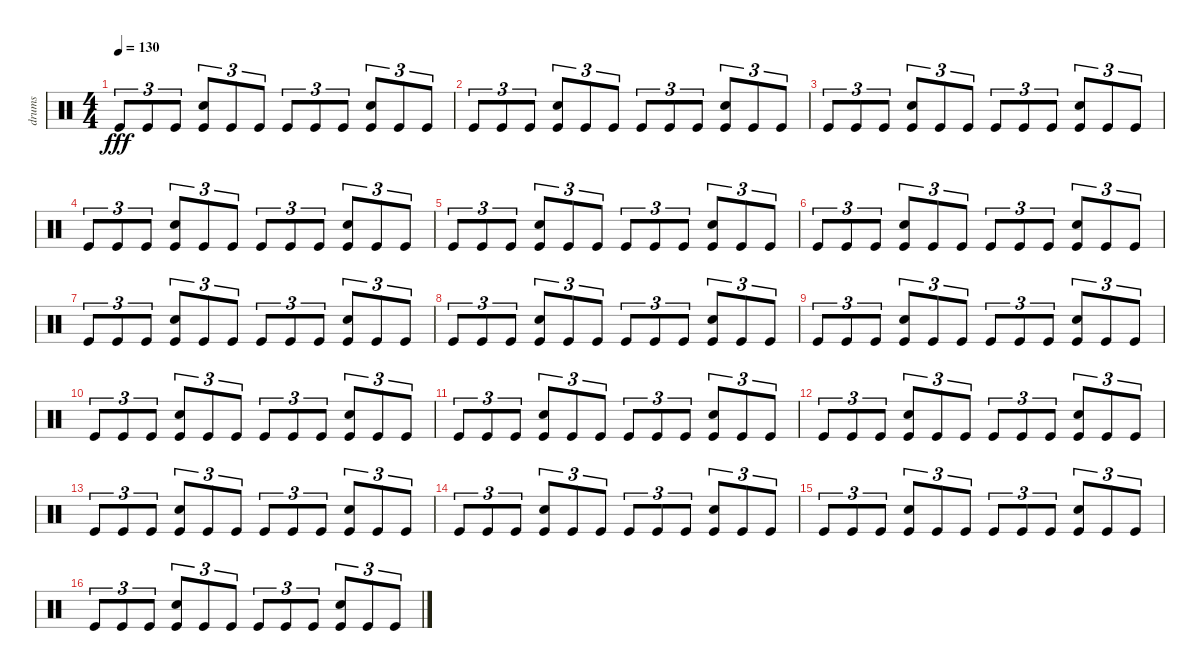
\track ("drums" "drums") {instrument percussion}
\staff {score}
\articulation defaults
\ts (4 4)
\tempo 130
\clef neutral
\ks c "Kick (hit)".8{tu (3 2) dy fff} "Kick (hit)".8{tu (3 2)} "Kick (hit)".8{tu (3 2)}
("Electric Snare (hit)" "Kick (hit)").8{tu (3 2)} "Kick (hit)".8{tu (3 2)} "Kick (hit)".8{tu (3 2)} "Kick (hit)".8{tu (3 2)} "Kick (hit)".8{tu (3 2)} "Kick (hit)".8{tu (3 2)} ("Electric Snare (hit)" "Kick (hit)").8{tu (3 2)} "Kick (hit)".8{tu (3 2)} "Kick (hit)".8{tu (3 2)} |
"Kick (hit)".8{tu (3 2)} "Kick (hit)".8{tu (3 2)} "Kick (hit)".8{tu (3 2)} ("Electric Snare (hit)" "Kick (hit)").8{tu (3 2)} "Kick (hit)".8{tu (3 2)} "Kick (hit)".8{tu (3 2)} "Kick (hit)".8{tu (3 2)} "Kick (hit)".8{tu (3 2)} "Kick (hit)".8{tu (3 2)} ("Electric Snare (hit)" "Kick (hit)").8{tu (3 2)} "Kick (hit)".8{tu (3 2)} "Kick (hit)".8{tu (3 2)} |
"Kick (hit)".8{tu (3 2)} "Kick (hit)".8{tu (3 2)} "Kick (hit)".8{tu (3 2)} ("Electric Snare (hit)" "Kick (hit)").8{tu (3 2)} "Kick (hit)".8{tu (3 2)} "Kick (hit)".8{tu (3 2)} "Kick (hit)".8{tu (3 2)} "Kick (hit)".8{tu (3 2)} "Kick (hit)".8{tu (3 2)} ("Electric Snare (hit)" "Kick (hit)").8{tu (3 2)} "Kick (hit)".8{tu (3 2)} "Kick (hit)".8{tu (3 2)} |
"Kick (hit)".8{tu (3 2)} "Kick (hit)".8{tu (3 2)} "Kick (hit)".8{tu (3 2)} ("Electric Snare (hit)" "Kick (hit)").8{tu (3 2)} "Kick (hit)".8{tu (3 2)} "Kick (hit)".8{tu (3 2)} "Kick (hit)".8{tu (3 2)} "Kick (hit)".8{tu (3 2)} "Kick (hit)".8{tu (3 2)} ("Electric Snare (hit)" "Kick (hit)").8{tu (3 2)} "Kick (hit)".8{tu (3 2)} "Kick (hit)".8{tu (3 2)} |
"Kick (hit)".8{tu (3 2)} "Kick (hit)".8{tu (3 2)} "Kick (hit)".8{tu (3 2)} ("Electric Snare (hit)" "Kick (hit)").8{tu (3 2)} "Kick (hit)".8{tu (3 2)} "Kick (hit)".8{tu (3 2)} "Kick (hit)".8{tu (3 2)} "Kick (hit)".8{tu (3 2)} "Kick (hit)".8{tu (3 2)} ("Electric Snare (hit)" "Kick (hit)").8{tu (3 2)} "Kick (hit)".8{tu (3 2)} "Kick (hit)".8{tu (3 2)} |
"Kick (hit)".8{tu (3 2)} "Kick (hit)".8{tu (3 2)} "Kick (hit)".8{tu (3 2)} ("Electric Snare (hit)" "Kick (hit)").8{tu (3 2)} "Kick (hit)".8{tu (3 2)} "Kick (hit)".8{tu (3 2)} "Kick (hit)".8{tu (3 2)} "Kick (hit)".8{tu (3 2)} "Kick (hit)".8{tu (3 2)} ("Electric Snare (hit)" "Kick (hit)").8{tu (3 2)} "Kick (hit)".8{tu (3 2)} "Kick (hit)".8{tu (3 2)} |
"Kick (hit)".8{tu (3 2)} "Kick (hit)".8{tu (3 2)} "Kick (hit)".8{tu (3 2)} ("Electric Snare (hit)" "Kick (hit)").8{tu (3 2)} "Kick (hit)".8{tu (3 2)} "Kick (hit)".8{tu (3 2)} "Kick (hit)".8{tu (3 2)} "Kick (hit)".8{tu (3 2)} "Kick (hit)".8{tu (3 2)} ("Electric Snare (hit)" "Kick (hit)").8{tu (3 2)} "Kick (hit)".8{tu (3 2)} "Kick (hit)".8{tu (3 2)} |
"Kick (hit)".8{tu (3 2)} "Kick (hit)".8{tu (3 2)} "Kick (hit)".8{tu (3 2)} ("Electric Snare (hit)" "Kick (hit)").8{tu (3 2)} "Kick (hit)".8{tu (3 2)} "Kick (hit)".8{tu (3 2)} "Kick (hit)".8{tu (3 2)} "Kick (hit)".8{tu (3 2)} "Kick (hit)".8{tu (3 2)} ("Electric Snare (hit)" "Kick (hit)").8{tu (3 2)} "Kick (hit)".8{tu (3 2)} "Kick (hit)".8{tu (3 2)} |
"Kick (hit)".8{tu (3 2)} "Kick (hit)".8{tu (3 2)} "Kick (hit)".8{tu (3 2)} ("Electric Snare (hit)" "Kick (hit)").8{tu (3 2)} "Kick (hit)".8{tu (3 2)} "Kick (hit)".8{tu (3 2)} "Kick (hit)".8{tu (3 2)} "Kick (hit)".8{tu (3 2)} "Kick (hit)".8{tu (3 2)} ("Electric Snare (hit)" "Kick (hit)").8{tu (3 2)} "Kick (hit)".8{tu (3 2)} "Kick (hit)".8{tu (3 2)} |
"Kick (hit)".8{tu (3 2)} "Kick (hit)".8{tu (3 2)} "Kick (hit)".8{tu (3 2)} ("Electric Snare (hit)" "Kick (hit)").8{tu (3 2)} "Kick (hit)".8{tu (3 2)} "Kick (hit)".8{tu (3 2)} "Kick (hit)".8{tu (3 2)} "Kick (hit)".8{tu (3 2)} "Kick (hit)".8{tu (3 2)} ("Electric Snare (hit)" "Kick (hit)").8{tu (3 2)} "Kick (hit)".8{tu (3 2)} "Kick (hit)".8{tu (3 2)} |
"Kick (hit)".8{tu (3 2)} "Kick (hit)".8{tu (3 2)} "Kick (hit)".8{tu (3 2)} ("Electric Snare (hit)" "Kick (hit)").8{tu (3 2)} "Kick (hit)".8{tu (3 2)} "Kick (hit)".8{tu (3 2)} "Kick (hit)".8{tu (3 2)} "Kick (hit)".8{tu (3 2)} "Kick (hit)".8{tu (3 2)} ("Electric Snare (hit)" "Kick (hit)").8{tu (3 2)} "Kick (hit)".8{tu (3 2)} "Kick (hit)".8{tu (3 2)} |
"Kick (hit)".8{tu (3 2)} "Kick (hit)".8{tu (3 2)} "Kick (hit)".8{tu (3 2)} ("Electric Snare (hit)" "Kick (hit)").8{tu (3 2)} "Kick (hit)".8{tu (3 2)} "Kick (hit)".8{tu (3 2)} "Kick (hit)".8{tu (3 2)} "Kick (hit)".8{tu (3 2)} "Kick (hit)".8{tu (3 2)} ("Electric Snare (hit)" "Kick (hit)").8{tu (3 2)} "Kick (hit)".8{tu (3 2)} "Kick (hit)".8{tu (3 2)} |
"Kick (hit)".8{tu (3 2)} "Kick (hit)".8{tu (3 2)} "Kick (hit)".8{tu (3 2)} ("Electric Snare (hit)" "Kick (hit)").8{tu (3 2)} "Kick (hit)".8{tu (3 2)} "Kick (hit)".8{tu (3 2)} "Kick (hit)".8{tu (3 2)} "Kick (hit)".8{tu (3 2)} "Kick (hit)".8{tu (3 2)} ("Electric Snare (hit)" "Kick (hit)").8{tu (3 2)} "Kick (hit)".8{tu (3 2)} "Kick (hit)".8{tu (3 2)} |
"Kick (hit)".8{tu (3 2)} "Kick (hit)".8{tu (3 2)} "Kick (hit)".8{tu (3 2)} ("Electric Snare (hit)" "Kick (hit)").8{tu (3 2)} "Kick (hit)".8{tu (3 2)} "Kick (hit)".8{tu (3 2)} "Kick (hit)".8{tu (3 2)} "Kick (hit)".8{tu (3 2)} "Kick (hit)".8{tu (3 2)} ("Electric Snare (hit)" "Kick (hit)").8{tu (3 2)} "Kick (hit)".8{tu (3 2)} "Kick (hit)".8{tu (3 2)} |
"Kick (hit)".8{tu (3 2)} "Kick (hit)".8{tu (3 2)} "Kick (hit)".8{tu (3 2)} ("Electric Snare (hit)" "Kick (hit)").8{tu (3 2)} "Kick (hit)".8{tu (3 2)} "Kick (hit)".8{tu (3 2)} "Kick (hit)".8{tu (3 2)} "Kick (hit)".8{tu (3 2)} "Kick (hit)".8{tu (3 2)} ("Electric Snare (hit)" "Kick (hit)").8{tu (3 2)} "Kick (hit)".8{tu (3 2)} "Kick (hit)".8{tu (3 2)} |
"Kick (hit)".8{tu (3 2)} "Kick (hit)".8{tu (3 2)} "Kick (hit)".8{tu (3 2)} ("Electric Snare (hit)" "Kick (hit)").8{tu (3 2)} "Kick (hit)".8{tu (3 2)} "Kick (hit)".8{tu (3 2)} "Kick (hit)".8{tu (3 2)} "Kick (hit)".8{tu (3 2)} "Kick (hit)".8{tu (3 2)} ("Electric Snare (hit)" "Kick (hit)").8{tu (3 2)} "Kick (hit)".8{tu (3 2)} "Kick (hit)".8{tu (3 2)}
